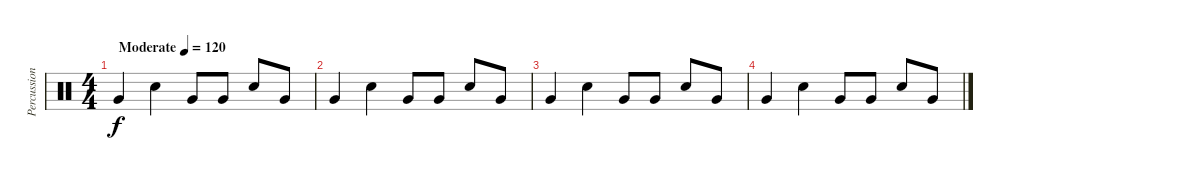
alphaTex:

\track ("Percussion" "Percussion") {instrument percussion}
\staff {score}
\articulation defaults
\ts (4 4)
\tempo (120 "Moderate")
\clef neutral
\ks c "Very Low Tom (hit)".4{dy f} "Snare (hit) 2".4 "Very Low Tom (hit)".8 "Very Low Tom (hit)".8 "Snare (hit) 2".8 "Very Low Tom (hit)".8
|
"Very Low Tom (hit)".4 "Snare (hit) 2".4 "Very Low Tom (hit)".8 "Very Low Tom (hit)".8 "Snare (hit) 2".8 "Very Low Tom (hit)".8 |
"Very Low Tom (hit)".4 "Snare (hit) 2".4 "Very Low Tom (hit)".8 "Very Low Tom (hit)".8 "Snare (hit) 2".8 "Very Low Tom (hit)".8 |
"Very Low Tom (hit)".4 "Snare (hit) 2".4 "Very Low Tom (hit)".8 "Very Low Tom (hit)".8 "Snare (hit) 2".8 "Very Low Tom (hit)".8
